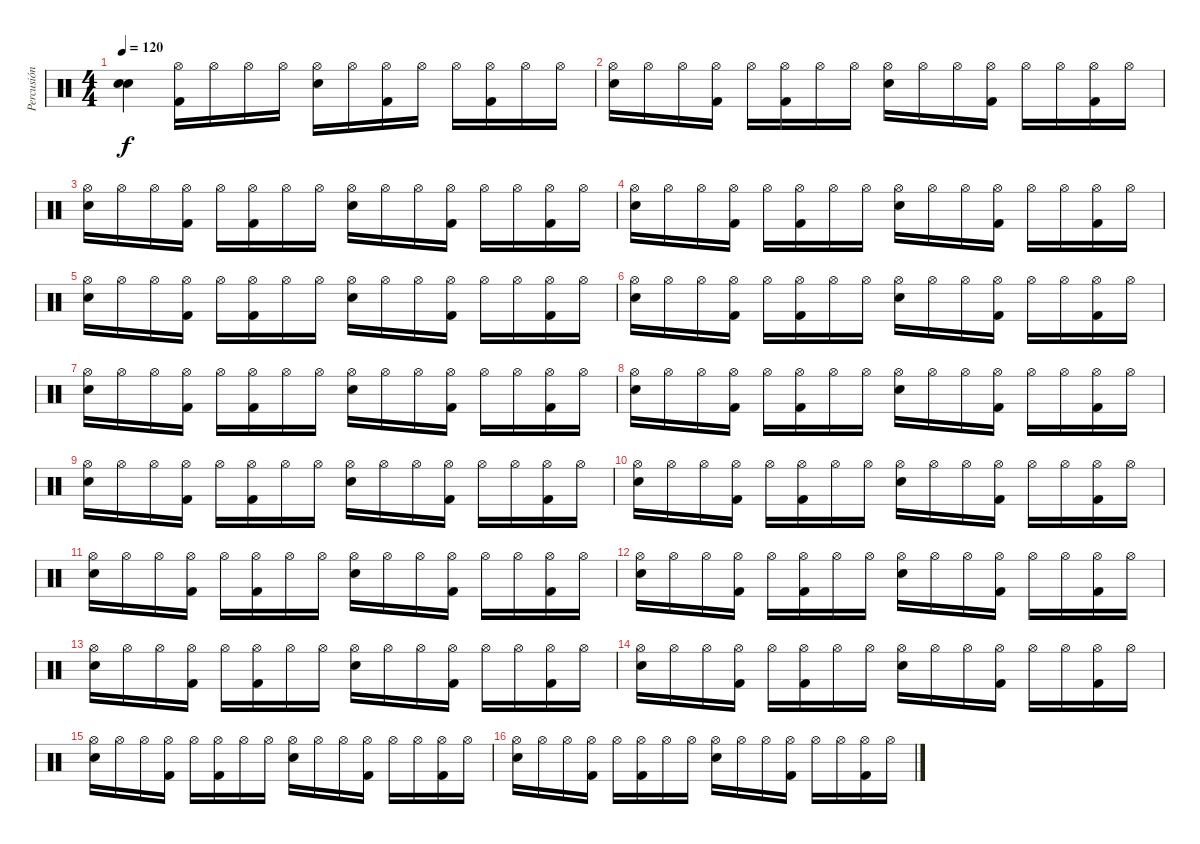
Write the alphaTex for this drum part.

\track ("Percusión" "Percusión") {instrument percussion}
\staff {score}
\articulation defaults
\ts (4 4)
\tempo 120
\clef neutral
\ks c
("Snare (hit) 2" "Snare (hit) 2").4{dy f} ("Hi-Hat (open)" "Kick (hit) 2").16 "Hi-Hat (open)".16 "Hi-Hat (open)".16 "Hi-Hat (open)".16 ("Hi-Hat (open)" "Snare (hit) 2").16 "Hi-Hat (open)".16 ("Hi-Hat (open)" "Kick (hit) 2").16 "Hi-Hat (open)".16 "Hi-Hat (open)".16 ("Hi-Hat (open)" "Kick (hit) 2").16 "Hi-Hat (open)".16 "Hi-Hat (open)".16 |
("Hi-Hat (open)" "Snare (hit) 2").16 "Hi-Hat (open)".16 "Hi-Hat (open)".16 ("Hi-Hat (open)" "Kick (hit) 2").16 "Hi-Hat (open)".16 ("Hi-Hat (open)" "Kick (hit) 2").16 "Hi-Hat (open)".16 "Hi-Hat (open)".16 ("Hi-Hat (open)" "Snare (hit) 2").16 "Hi-Hat (open)".16 "Hi-Hat (open)".16 ("Hi-Hat (open)" "Kick (hit) 2").16 "Hi-Hat (open)".16 "Hi-Hat (open)".16 ("Hi-Hat (open)" "Kick (hit) 2").16 "Hi-Hat (open)".16 |
("Hi-Hat (open)" "Snare (hit) 2").16 "Hi-Hat (open)".16 "Hi-Hat (open)".16 ("Hi-Hat (open)" "Kick (hit) 2").16 "Hi-Hat (open)".16 ("Hi-Hat (open)" "Kick (hit) 2").16 "Hi-Hat (open)".16 "Hi-Hat (open)".16 ("Hi-Hat (open)" "Snare (hit) 2").16 "Hi-Hat (open)".16 "Hi-Hat (open)".16 ("Hi-Hat (open)" "Kick (hit) 2").16 "Hi-Hat (open)".16 "Hi-Hat (open)".16 ("Hi-Hat (open)" "Kick (hit) 2").16 "Hi-Hat (open)".16 |
("Hi-Hat (open)" "Snare (hit) 2").16 "Hi-Hat (open)".16 "Hi-Hat (open)".16 ("Hi-Hat (open)" "Kick (hit) 2").16 "Hi-Hat (open)".16 ("Hi-Hat (open)" "Kick (hit) 2").16 "Hi-Hat (open)".16 "Hi-Hat (open)".16 ("Hi-Hat (open)" "Snare (hit) 2").16 "Hi-Hat (open)".16 "Hi-Hat (open)".16 ("Hi-Hat (open)" "Kick (hit) 2").16 "Hi-Hat (open)".16 "Hi-Hat (open)".16 ("Hi-Hat (open)" "Kick (hit) 2").16 "Hi-Hat (open)".16 |
("Hi-Hat (open)" "Snare (hit) 2").16 "Hi-Hat (open)".16 "Hi-Hat (open)".16 ("Hi-Hat (open)" "Kick (hit) 2").16 "Hi-Hat (open)".16 ("Hi-Hat (open)" "Kick (hit) 2").16 "Hi-Hat (open)".16 "Hi-Hat (open)".16 ("Hi-Hat (open)" "Snare (hit) 2").16 "Hi-Hat (open)".16 "Hi-Hat (open)".16 ("Hi-Hat (open)" "Kick (hit) 2").16 "Hi-Hat (open)".16 "Hi-Hat (open)".16 ("Hi-Hat (open)" "Kick (hit) 2").16 "Hi-Hat (open)".16 |
("Hi-Hat (open)" "Snare (hit) 2").16 "Hi-Hat (open)".16 "Hi-Hat (open)".16 ("Hi-Hat (open)" "Kick (hit) 2").16 "Hi-Hat (open)".16 ("Hi-Hat (open)" "Kick (hit) 2").16 "Hi-Hat (open)".16 "Hi-Hat (open)".16 ("Hi-Hat (open)" "Snare (hit) 2").16 "Hi-Hat (open)".16 "Hi-Hat (open)".16 ("Hi-Hat (open)" "Kick (hit) 2").16 "Hi-Hat (open)".16 "Hi-Hat (open)".16 ("Hi-Hat (open)" "Kick (hit) 2").16 "Hi-Hat (open)".16 |
("Hi-Hat (open)" "Snare (hit) 2").16 "Hi-Hat (open)".16 "Hi-Hat (open)".16 ("Hi-Hat (open)" "Kick (hit) 2").16 "Hi-Hat (open)".16 ("Hi-Hat (open)" "Kick (hit) 2").16 "Hi-Hat (open)".16 "Hi-Hat (open)".16 ("Hi-Hat (open)" "Snare (hit) 2").16 "Hi-Hat (open)".16 "Hi-Hat (open)".16 ("Hi-Hat (open)" "Kick (hit) 2").16 "Hi-Hat (open)".16 "Hi-Hat (open)".16 ("Hi-Hat (open)" "Kick (hit) 2").16 "Hi-Hat (open)".16 |
("Hi-Hat (open)" "Snare (hit) 2").16 "Hi-Hat (open)".16 "Hi-Hat (open)".16 ("Hi-Hat (open)" "Kick (hit) 2").16 "Hi-Hat (open)".16 ("Hi-Hat (open)" "Kick (hit) 2").16 "Hi-Hat (open)".16 "Hi-Hat (open)".16 ("Hi-Hat (open)" "Snare (hit) 2").16 "Hi-Hat (open)".16 "Hi-Hat (open)".16 ("Hi-Hat (open)" "Kick (hit) 2").16 "Hi-Hat (open)".16 "Hi-Hat (open)".16 ("Hi-Hat (open)" "Kick (hit) 2").16 "Hi-Hat (open)".16 |
("Hi-Hat (open)" "Snare (hit) 2").16 "Hi-Hat (open)".16 "Hi-Hat (open)".16 ("Hi-Hat (open)" "Kick (hit) 2").16 "Hi-Hat (open)".16 ("Hi-Hat (open)" "Kick (hit) 2").16 "Hi-Hat (open)".16 "Hi-Hat (open)".16 ("Hi-Hat (open)" "Snare (hit) 2").16 "Hi-Hat (open)".16 "Hi-Hat (open)".16 ("Hi-Hat (open)" "Kick (hit) 2").16 "Hi-Hat (open)".16 "Hi-Hat (open)".16 ("Hi-Hat (open)" "Kick (hit) 2").16 "Hi-Hat (open)".16 |
("Hi-Hat (open)" "Snare (hit) 2").16 "Hi-Hat (open)".16 "Hi-Hat (open)".16 ("Hi-Hat (open)" "Kick (hit) 2").16 "Hi-Hat (open)".16 ("Hi-Hat (open)" "Kick (hit) 2").16 "Hi-Hat (open)".16 "Hi-Hat (open)".16 ("Hi-Hat (open)" "Snare (hit) 2").16 "Hi-Hat (open)".16 "Hi-Hat (open)".16 ("Hi-Hat (open)" "Kick (hit) 2").16 "Hi-Hat (open)".16 "Hi-Hat (open)".16 ("Hi-Hat (open)" "Kick (hit) 2").16 "Hi-Hat (open)".16 |
("Hi-Hat (open)" "Snare (hit) 2").16 "Hi-Hat (open)".16 "Hi-Hat (open)".16 ("Hi-Hat (open)" "Kick (hit) 2").16 "Hi-Hat (open)".16 ("Hi-Hat (open)" "Kick (hit) 2").16 "Hi-Hat (open)".16 "Hi-Hat (open)".16 ("Hi-Hat (open)" "Snare (hit) 2").16 "Hi-Hat (open)".16 "Hi-Hat (open)".16 ("Hi-Hat (open)" "Kick (hit) 2").16 "Hi-Hat (open)".16 "Hi-Hat (open)".16 ("Hi-Hat (open)" "Kick (hit) 2").16 "Hi-Hat (open)".16 |
("Hi-Hat (open)" "Snare (hit) 2").16 "Hi-Hat (open)".16 "Hi-Hat (open)".16 ("Hi-Hat (open)" "Kick (hit) 2").16 "Hi-Hat (open)".16 ("Hi-Hat (open)" "Kick (hit) 2").16 "Hi-Hat (open)".16 "Hi-Hat (open)".16 ("Hi-Hat (open)" "Snare (hit) 2").16 "Hi-Hat (open)".16 "Hi-Hat (open)".16 ("Hi-Hat (open)" "Kick (hit) 2").16 "Hi-Hat (open)".16 "Hi-Hat (open)".16 ("Hi-Hat (open)" "Kick (hit) 2").16 "Hi-Hat (open)".16 |
("Hi-Hat (open)" "Snare (hit) 2").16 "Hi-Hat (open)".16 "Hi-Hat (open)".16 ("Hi-Hat (open)" "Kick (hit) 2").16 "Hi-Hat (open)".16 ("Hi-Hat (open)" "Kick (hit) 2").16 "Hi-Hat (open)".16 "Hi-Hat (open)".16 ("Hi-Hat (open)" "Snare (hit) 2").16 "Hi-Hat (open)".16 "Hi-Hat (open)".16 ("Hi-Hat (open)" "Kick (hit) 2").16 "Hi-Hat (open)".16 "Hi-Hat (open)".16 ("Hi-Hat (open)" "Kick (hit) 2").16 "Hi-Hat (open)".16 |
("Hi-Hat (open)" "Snare (hit) 2").16 "Hi-Hat (open)".16 "Hi-Hat (open)".16 ("Hi-Hat (open)" "Kick (hit) 2").16 "Hi-Hat (open)".16 ("Hi-Hat (open)" "Kick (hit) 2").16 "Hi-Hat (open)".16 "Hi-Hat (open)".16 ("Hi-Hat (open)" "Snare (hit) 2").16 "Hi-Hat (open)".16 "Hi-Hat (open)".16 ("Hi-Hat (open)" "Kick (hit) 2").16 "Hi-Hat (open)".16 "Hi-Hat (open)".16 ("Hi-Hat (open)" "Kick (hit) 2").16 "Hi-Hat (open)".16 |
("Hi-Hat (open)" "Snare (hit) 2").16 "Hi-Hat (open)".16 "Hi-Hat (open)".16 ("Hi-Hat (open)" "Kick (hit) 2").16 "Hi-Hat (open)".16 ("Hi-Hat (open)" "Kick (hit) 2").16 "Hi-Hat (open)".16 "Hi-Hat (open)".16 ("Hi-Hat (open)" "Snare (hit) 2").16 "Hi-Hat (open)".16 "Hi-Hat (open)".16 ("Hi-Hat (open)" "Kick (hit) 2").16 "Hi-Hat (open)".16 "Hi-Hat (open)".16 ("Hi-Hat (open)" "Kick (hit) 2").16 "Hi-Hat (open)".16 |
("Hi-Hat (open)" "Snare (hit) 2").16 "Hi-Hat (open)".16 "Hi-Hat (open)".16 ("Hi-Hat (open)" "Kick (hit) 2").16 "Hi-Hat (open)".16 ("Hi-Hat (open)" "Kick (hit) 2").16 "Hi-Hat (open)".16 "Hi-Hat (open)".16 ("Hi-Hat (open)" "Snare (hit) 2").16 "Hi-Hat (open)".16 "Hi-Hat (open)".16 ("Hi-Hat (open)" "Kick (hit) 2").16 "Hi-Hat (open)".16 "Hi-Hat (open)".16 ("Hi-Hat (open)" "Kick (hit) 2").16 "Hi-Hat (open)".16
